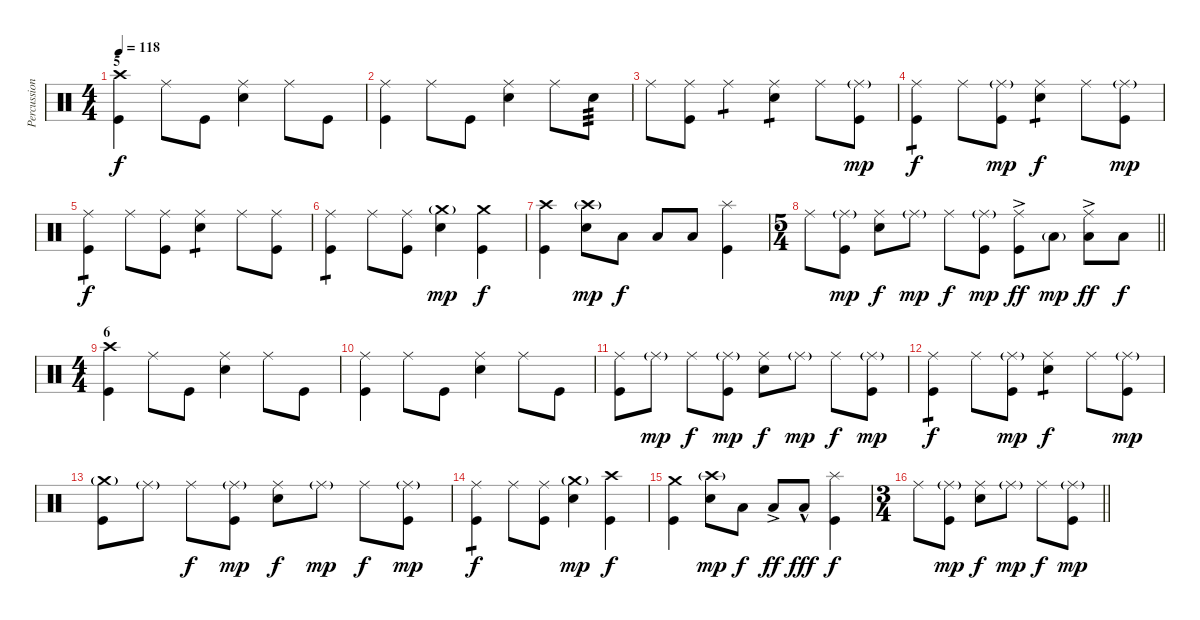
\track ("Percussion" "Percussion") {instrument percussion}
\staff {score}
\articulation defaults
\ts (4 4)
\section ("" "5")
\tempo 118
\clef neutral
\ks c
("Crash high (hit)" "Kick (hit)").4{dy f} "Ride (middle)".8 "Kick (hit)".8 ("Ride (middle)" "Snare (hit) 2").4 "Ride (middle)".8 "Kick (hit)".8 |
("Ride (middle)" "Kick (hit)").4 "Ride (middle)".8 "Kick (hit)".8 ("Ride (middle)" "Snare (hit) 2").4 "Ride (middle)".8 "Snare (hit) 2".8{tp 3} |
"Ride (middle)".8 ("Ride (middle)" "Kick (hit)").8 "Ride (middle)".4{tp 1} ("Ride (middle)" "Snare (hit) 2").4{tp 1} "Ride (middle)".8 ("Ride (middle)"{g} "Kick (hit)").8{dy mp} |
("Ride (middle)" "Kick (hit)").4{tp 1 dy f} "Ride (middle)".8 ("Ride (middle)"{g} "Kick (hit)").8{dy mp} ("Ride (middle)" "Snare (hit) 2").4{tp 1 dy f} "Ride (middle)".8 ("Ride (middle)"{g} "Kick (hit)").8{dy mp} |
("Ride (middle)" "Kick (hit)").4{tp 1 dy f} "Ride (middle)".8 ("Ride (middle)" "Kick (hit)").8 ("Ride (middle)" "Snare (hit) 2").4{tp 1} "Ride (middle)".8 ("Ride (middle)" "Kick (hit)").8 |
("Ride (middle)" "Kick (hit)").4{tp 1} "Ride (middle)".8 ("Ride (middle)" "Kick (hit)").8 ("Crash medium (hit)"{g} "Snare (hit) 2").4{dy mp} ("Crash medium (hit)" "Kick (hit)").4{dy f} |
("Crash high (hit)" "Kick (hit)").4 ("Crash high (hit)"{g} "Snare (hit) 2").8{dy mp} "Low Floor Tom (hit)".8{dy f} "Low Floor Tom (hit)".8 "Low Floor Tom (hit)".8 ("Splash (hit)" "Kick (hit)").4 |
\ts (5 4)
\barLineRight lightlight "Ride (middle)".8
("Ride (middle)"{g} "Kick (hit)").8{dy mp} ("Ride (middle)" "Snare (hit) 2").8{dy f} "Ride (middle)"{g}.8{dy mp} "Ride (middle)".8{dy f} ("Ride (middle)"{g} "Kick (hit)").8{dy mp} ("Ride (middle)"{ac} "Kick (hit)").8{dy ff} "Low Floor Tom (hit)"{g}.8{dy mp} ("Ride (middle)"{ac} "Low Floor Tom (hit)").8{dy ff} "Low Floor Tom (hit)".8{dy f} |
\ts (4 4)
\section ("" "6")
("Crash high (hit)" "Kick (hit)").4 "Ride (middle)".8 "Kick (hit)".8 ("Ride (middle)" "Snare (hit) 2").4 "Ride (middle)".8 "Kick (hit)".8 |
("Ride (middle)" "Kick (hit)").4 "Ride (middle)".8 "Kick (hit)".8 ("Ride (middle)" "Snare (hit) 2").4 "Ride (middle)".8 "Kick (hit)".8 |
("Ride (middle)" "Kick (hit)").8 "Ride (middle)"{g}.8{dy mp} "Ride (middle)".8{dy f} ("Ride (middle)"{g} "Kick (hit)").8{dy mp} ("Ride (middle)" "Snare (hit) 2").8{dy f} "Ride (middle)"{g}.8{dy mp} "Ride (middle)".8{dy f} ("Ride (middle)"{g} "Kick (hit)").8{dy mp} |
("Ride (middle)" "Kick (hit)").4{tp 1 dy f} "Ride (middle)".8 ("Ride (middle)"{g} "Kick (hit)").8{dy mp} ("Ride (middle)" "Snare (hit) 2").4{tp 1 dy f} "Ride (middle)".8 ("Ride (middle)"{g} "Kick (hit)").8{dy mp} |
("Crash medium (hit)"{g} "Kick (hit)").8 "Ride (middle)"{g}.8 "Ride (middle)".8{dy f} ("Ride (middle)"{g} "Kick (hit)").8{dy mp} ("Ride (middle)" "Snare (hit) 2").8{dy f} "Ride (middle)"{g}.8{dy mp} "Ride (middle)".8{dy f} ("Ride (middle)"{g} "Kick (hit)").8{dy mp} |
("Ride (middle)" "Kick (hit)").4{tp 1 dy f} "Ride (middle)".8 ("Ride (middle)" "Kick (hit)").8 ("Crash medium (hit)"{g} "Snare (hit) 2").4{dy mp} ("Crash high (hit)" "Kick (hit)").4{dy f} |
("Crash medium (hit)" "Kick (hit)").4 ("Crash high (hit)"{g} "Snare (hit) 2").8{dy mp} "Low Floor Tom (hit)".8{dy f} "Low Floor Tom (hit)"{ac}.8{dy ff} "Low Floor Tom (hit)"{hac}.8{dy fff} ("Splash (hit)" "Kick (hit)").4{dy f} |
\ts (3 4)
\barLineRight lightlight "Ride (middle)".8
("Ride (middle)"{g} "Kick (hit)").8{dy mp} ("Ride (middle)" "Snare (hit) 2").8{dy f} "Ride (middle)"{g}.8{dy mp} "Ride (middle)".8{dy f} ("Ride (middle)"{g} "Kick (hit)").8{dy mp}
